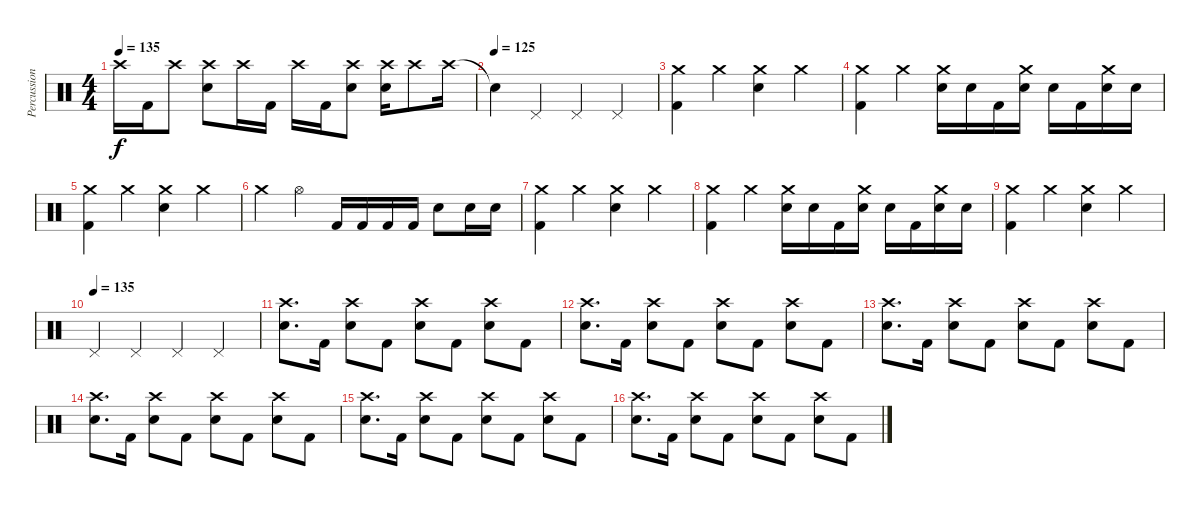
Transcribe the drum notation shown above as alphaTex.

\track ("Percussion" "Percussion") {instrument percussion}
\staff
\articulation defaults
\ts (4 4)
\tempo 135
\clef neutral
\ks c "Crash high (hit)".16{dy f} "Kick (hit) 2".16 "Crash high (hit)".8
("Crash high (hit)" "Electric Snare (hit)").8 "Crash high (hit)".16 "Kick (hit) 2".16 "Crash high (hit)".16 "Kick (hit) 2".16 ("Crash high (hit)" "Electric Snare (hit)").8 ("Crash high (hit)" "Electric Snare (hit)").16 "Crash high (hit)".8 "Crash high (hit)".16 |
\tempo (125)
"Snare (hit)"{t}.4 "Pedal Hi-Hat (hit)".4 "Pedal Hi-Hat (hit)".4 "Pedal Hi-Hat (hit)".4 |
("Crash medium (hit)" "Kick (hit) 2").4 "Crash medium (hit)".4 ("Crash medium (hit)" "Electric Snare (hit)").4 "Crash medium (hit)".4 |
("Crash medium (hit)" "Kick (hit) 2").4 "Crash medium (hit)".4 ("Crash medium (hit)" "Electric Snare (hit)").16 "Electric Snare (hit)".16 "Kick (hit) 2".16 ("Crash medium (hit)" "Electric Snare (hit)").16 "Electric Snare (hit)".16 "Kick (hit) 2".16 ("Crash medium (hit)" "Electric Snare (hit)").16 "Electric Snare (hit)".16 |
("Crash medium (hit)" "Kick (hit) 2").4 "Crash medium (hit)".4 ("Crash medium (hit)" "Electric Snare (hit)").4 "Crash medium (hit)".4 |
"Crash medium (hit)".4 "Hi-Hat (open)".4 "Kick (hit) 2".16 "Kick (hit) 2".16 "Kick (hit) 2".16 "Kick (hit) 2".16 "Electric Snare (hit)".8 "Electric Snare (hit)".16 "Electric Snare (hit)".16 |
("Crash medium (hit)" "Kick (hit) 2").4 "Crash medium (hit)".4 ("Crash medium (hit)" "Electric Snare (hit)").4 "Crash medium (hit)".4 |
("Crash medium (hit)" "Kick (hit) 2").4 "Crash medium (hit)".4 ("Crash medium (hit)" "Electric Snare (hit)").16 "Electric Snare (hit)".16 "Kick (hit) 2".16 ("Crash medium (hit)" "Electric Snare (hit)").16 "Electric Snare (hit)".16 "Kick (hit) 2".16 ("Crash medium (hit)" "Electric Snare (hit)").16 "Electric Snare (hit)".16 |
("Crash medium (hit)" "Kick (hit) 2").4 "Crash medium (hit)".4 ("Crash medium (hit)" "Electric Snare (hit)").4 "Crash medium (hit)".4 |
\tempo (135)
"Pedal Hi-Hat (hit)".4 "Pedal Hi-Hat (hit)".4 "Pedal Hi-Hat (hit)".4 "Pedal Hi-Hat (hit)".4 |
("Crash high (hit)" "Electric Snare (hit)").8{d} "Kick (hit) 2".16 ("Crash high (hit)" "Electric Snare (hit)").8 "Kick (hit) 2".8 ("Crash high (hit)" "Electric Snare (hit)").8 "Kick (hit) 2".8 ("Crash high (hit)" "Electric Snare (hit)").8 "Kick (hit) 2".8 |
("Crash high (hit)" "Electric Snare (hit)").8{d} "Kick (hit) 2".16 ("Crash high (hit)" "Electric Snare (hit)").8 "Kick (hit) 2".8 ("Crash high (hit)" "Electric Snare (hit)").8 "Kick (hit) 2".8 ("Crash high (hit)" "Electric Snare (hit)").8 "Kick (hit) 2".8 |
("Crash high (hit)" "Electric Snare (hit)").8{d} "Kick (hit) 2".16 ("Crash high (hit)" "Electric Snare (hit)").8 "Kick (hit) 2".8 ("Crash high (hit)" "Electric Snare (hit)").8 "Kick (hit) 2".8 ("Crash high (hit)" "Electric Snare (hit)").8 "Kick (hit) 2".8 |
("Crash high (hit)" "Electric Snare (hit)").8{d} "Kick (hit) 2".16 ("Crash high (hit)" "Electric Snare (hit)").8 "Kick (hit) 2".8 ("Crash high (hit)" "Electric Snare (hit)").8 "Kick (hit) 2".8 ("Crash high (hit)" "Electric Snare (hit)").8 "Kick (hit) 2".8 |
("Crash high (hit)" "Electric Snare (hit)").8{d} "Kick (hit) 2".16 ("Crash high (hit)" "Electric Snare (hit)").8 "Kick (hit) 2".8 ("Crash high (hit)" "Electric Snare (hit)").8 "Kick (hit) 2".8 ("Crash high (hit)" "Electric Snare (hit)").8 "Kick (hit) 2".8 |
("Crash high (hit)" "Electric Snare (hit)").8{d} "Kick (hit) 2".16 ("Crash high (hit)" "Electric Snare (hit)").8 "Kick (hit) 2".8 ("Crash high (hit)" "Electric Snare (hit)").8 "Kick (hit) 2".8 ("Crash high (hit)" "Electric Snare (hit)").8 "Kick (hit) 2".8
